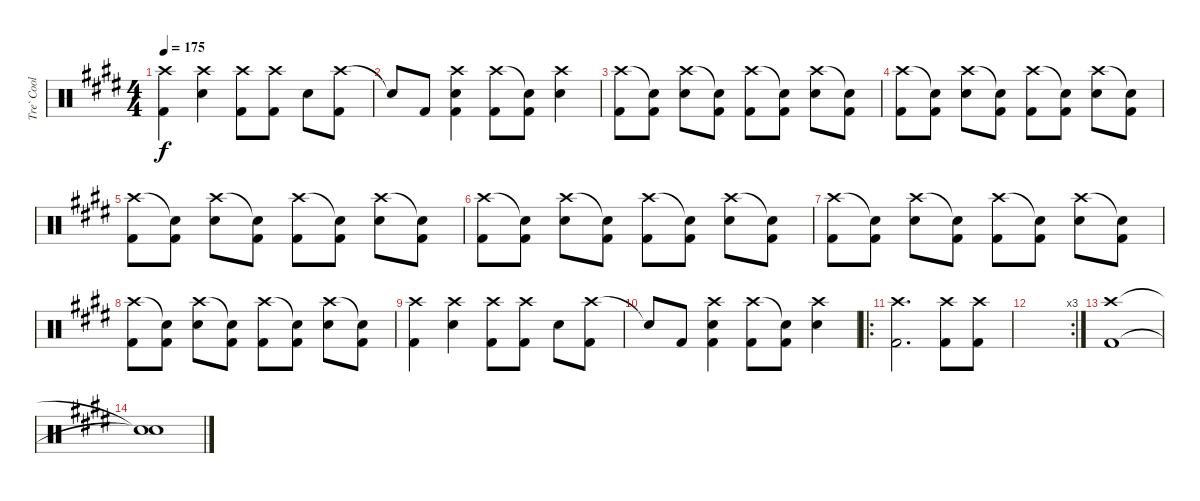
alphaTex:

\track ("Tre` Cool" "Tre` Cool") {instrument percussion}
\staff {score}
\articulation defaults
\ts (4 4)
\tempo 175
\clef neutral
\ks e
("Crash high (hit)" "Kick (hit) 2").4{dy f} ("Crash high (hit)" "Snare (hit) 2").4 ("Crash high (hit)" "Kick (hit) 2").8 ("Crash high (hit)" "Kick (hit) 2").8 "Snare (hit) 2".8 ("Crash high (hit)" "Kick (hit) 2").8 |
"Snare (hit)"{t}.8 "Kick (hit) 2".8 ("Crash high (hit)" "Snare (hit) 2" "Kick (hit) 2").4 ("Crash high (hit)" "Kick (hit) 2").8 ("Snare (hit)"{t} "Kick (hit) 2").8 ("Crash high (hit)" "Snare (hit) 2").4 |
("Crash high (hit)" "Kick (hit) 2").8 ("Snare (hit)"{t} "Kick (hit) 2").8 ("Crash high (hit)" "Snare (hit) 2").8 ("Snare (hit)"{t} "Kick (hit) 2").8 ("Crash high (hit)" "Kick (hit) 2").8 ("Snare (hit)"{t} "Kick (hit) 2").8 ("Crash high (hit)" "Snare (hit) 2").8 ("Snare (hit)"{t} "Kick (hit) 2").8 |
("Crash high (hit)" "Kick (hit) 2").8 ("Snare (hit)"{t} "Kick (hit) 2").8 ("Crash high (hit)" "Snare (hit) 2").8 ("Snare (hit)"{t} "Kick (hit) 2").8 ("Crash high (hit)" "Kick (hit) 2").8 ("Snare (hit)"{t} "Kick (hit) 2").8 ("Crash high (hit)" "Snare (hit) 2").8 ("Snare (hit)"{t} "Kick (hit) 2").8 |
("Crash high (hit)" "Kick (hit) 2").8 ("Snare (hit)"{t} "Kick (hit) 2").8 ("Crash high (hit)" "Snare (hit) 2").8 ("Snare (hit)"{t} "Kick (hit) 2").8 ("Crash high (hit)" "Kick (hit) 2").8 ("Snare (hit)"{t} "Kick (hit) 2").8 ("Crash high (hit)" "Snare (hit) 2").8 ("Snare (hit)"{t} "Kick (hit) 2").8 |
("Crash high (hit)" "Kick (hit) 2").8 ("Snare (hit)"{t} "Kick (hit) 2").8 ("Crash high (hit)" "Snare (hit) 2").8 ("Snare (hit)"{t} "Kick (hit) 2").8 ("Crash high (hit)" "Kick (hit) 2").8 ("Snare (hit)"{t} "Kick (hit) 2").8 ("Crash high (hit)" "Snare (hit) 2").8 ("Snare (hit)"{t} "Kick (hit) 2").8 |
("Crash high (hit)" "Kick (hit) 2").8 ("Snare (hit)"{t} "Kick (hit) 2").8 ("Crash high (hit)" "Snare (hit) 2").8 ("Snare (hit)"{t} "Kick (hit) 2").8 ("Crash high (hit)" "Kick (hit) 2").8 ("Snare (hit)"{t} "Kick (hit) 2").8 ("Crash high (hit)" "Snare (hit) 2").8 ("Snare (hit)"{t} "Kick (hit) 2").8 |
("Crash high (hit)" "Kick (hit) 2").8 ("Snare (hit)"{t} "Kick (hit) 2").8 ("Crash high (hit)" "Snare (hit) 2").8 ("Snare (hit)"{t} "Kick (hit) 2").8 ("Crash high (hit)" "Kick (hit) 2").8 ("Snare (hit)"{t} "Kick (hit) 2").8 ("Crash high (hit)" "Snare (hit) 2").8 ("Snare (hit)"{t} "Kick (hit) 2").8 |
("Crash high (hit)" "Kick (hit) 2").4 ("Crash high (hit)" "Snare (hit) 2").4 ("Crash high (hit)" "Kick (hit) 2").8 ("Crash high (hit)" "Kick (hit) 2").8 "Snare (hit) 2".8 ("Crash high (hit)" "Kick (hit) 2").8 |
"Snare (hit)"{t}.8 "Kick (hit) 2".8 ("Crash high (hit)" "Snare (hit) 2" "Kick (hit) 2").4 ("Crash high (hit)" "Kick (hit) 2").8 ("Snare (hit)"{t} "Kick (hit) 2").8 ("Crash high (hit)" "Snare (hit) 2").4 |
\ro
("Crash high (hit)" "Kick (hit) 2").2{d} ("Crash high (hit)" "Kick (hit) 2").8 ("Crash high (hit)" "Kick (hit) 2").8 |
\rc 3
|
("Crash high (hit)" "Kick (hit) 2").1 |
("Snare (hit)"{t} "Snare (hit)"{t}).1
